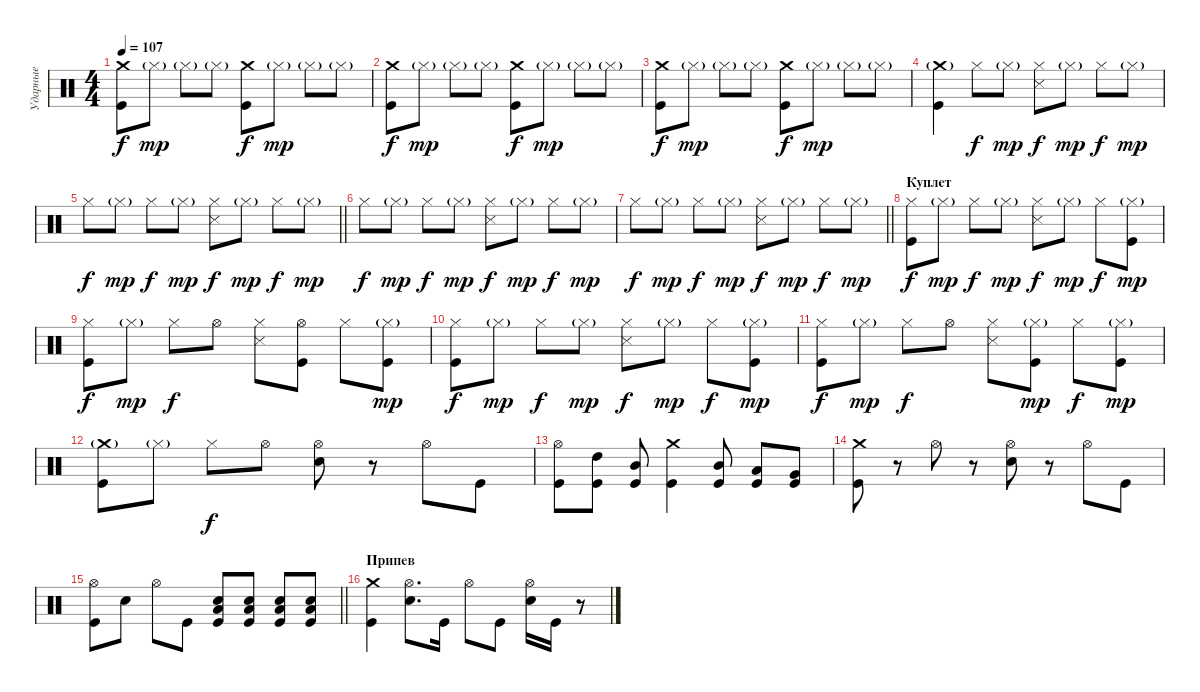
\track ("Ударные" "Ударные") {instrument percussion}
\staff {score}
\articulation defaults
\ts (4 4)
\tempo 107
\clef neutral
\ks c
("Kick (hit)" "Crash medium (hit)").8{dy f} "Hi-Hat (closed)"{g}.8{dy mp} "Hi-Hat (closed)"{g}.8 "Hi-Hat (closed)"{g}.8 ("Kick (hit)" "Crash medium (hit)").8{dy f} "Hi-Hat (closed)"{g}.8{dy mp} "Hi-Hat (closed)"{g}.8 "Hi-Hat (closed)"{g}.8 |
("Kick (hit)" "Crash medium (hit)").8{dy f} "Hi-Hat (closed)"{g}.8{dy mp} "Hi-Hat (closed)"{g}.8 "Hi-Hat (closed)"{g}.8 ("Kick (hit)" "Crash medium (hit)").8{dy f} "Hi-Hat (closed)"{g}.8{dy mp} "Hi-Hat (closed)"{g}.8 "Hi-Hat (closed)"{g}.8 |
("Kick (hit)" "Crash medium (hit)").8{dy f} "Hi-Hat (closed)"{g}.8{dy mp} "Hi-Hat (closed)"{g}.8 "Hi-Hat (closed)"{g}.8 ("Kick (hit)" "Crash medium (hit)").8{dy f} "Hi-Hat (closed)"{g}.8{dy mp} "Hi-Hat (closed)"{g}.8 "Hi-Hat (closed)"{g}.8 |
("Kick (hit)" "Crash medium (hit)"{g}).4 "Hi-Hat (closed)".8{dy f} "Hi-Hat (closed)"{g}.8{dy mp} ("Metronome (hit)" "Hi-Hat (closed)").8{dy f} "Hi-Hat (closed)"{g}.8{dy mp} "Hi-Hat (closed)".8{dy f} "Hi-Hat (closed)"{g}.8{dy mp} |
\barLineRight lightlight "Hi-Hat (closed)".8{dy f} "Hi-Hat (closed)"{g}.8{dy mp} "Hi-Hat (closed)".8{dy f} "Hi-Hat (closed)"{g}.8{dy mp}
("Metronome (hit)" "Hi-Hat (closed)").8{dy f} "Hi-Hat (closed)"{g}.8{dy mp} "Hi-Hat (closed)".8{dy f} "Hi-Hat (closed)"{g}.8{dy mp} |
"Hi-Hat (closed)".8{dy f} "Hi-Hat (closed)"{g}.8{dy mp} "Hi-Hat (closed)".8{dy f} "Hi-Hat (closed)"{g}.8{dy mp} ("Metronome (hit)" "Hi-Hat (closed)").8{dy f} "Hi-Hat (closed)"{g}.8{dy mp} "Hi-Hat (closed)".8{dy f} "Hi-Hat (closed)"{g}.8{dy mp} |
\barLineRight lightlight "Hi-Hat (closed)".8{dy f} "Hi-Hat (closed)"{g}.8{dy mp} "Hi-Hat (closed)".8{dy f} "Hi-Hat (closed)"{g}.8{dy mp}
("Metronome (hit)" "Hi-Hat (closed)").8{dy f} "Hi-Hat (closed)"{g}.8{dy mp} "Hi-Hat (closed)".8{dy f} "Hi-Hat (closed)"{g}.8{dy mp} |
\section ("" "Куплет")
("Kick (hit)" "Hi-Hat (closed)").8{dy f} "Hi-Hat (closed)"{g}.8{dy mp} "Hi-Hat (closed)".8{dy f} "Hi-Hat (closed)"{g}.8{dy mp} ("Metronome (hit)" "Hi-Hat (closed)").8{dy f} "Hi-Hat (closed)"{g}.8{dy mp} "Hi-Hat (closed)".8{dy f} ("Kick (hit)" "Hi-Hat (closed)"{g}).8{dy mp} |
("Kick (hit)" "Hi-Hat (closed)").8{dy f} "Hi-Hat (closed)"{g}.8{dy mp} "Hi-Hat (closed)".8{dy f} "Hi-Hat (open)".8 ("Metronome (hit)" "Hi-Hat (closed)").8 ("Kick (hit)" "Hi-Hat (open)").8 "Hi-Hat (closed)".8 ("Kick (hit)" "Hi-Hat (closed)"{g}).8{dy mp} |
("Kick (hit)" "Hi-Hat (closed)").8{dy f} "Hi-Hat (closed)"{g}.8{dy mp} "Hi-Hat (closed)".8{dy f} "Hi-Hat (closed)"{g}.8{dy mp} ("Metronome (hit)" "Hi-Hat (closed)").8{dy f} "Hi-Hat (closed)"{g}.8{dy mp} "Hi-Hat (closed)".8{dy f} ("Kick (hit)" "Hi-Hat (closed)"{g}).8{dy mp} |
("Kick (hit)" "Hi-Hat (closed)").8{dy f} "Hi-Hat (closed)"{g}.8{dy mp} "Hi-Hat (closed)".8{dy f} "Hi-Hat (open)".8 ("Metronome (hit)" "Hi-Hat (closed)").8 ("Kick (hit)" "Hi-Hat (closed)"{g}).8{dy mp} "Hi-Hat (closed)".8{dy f} ("Kick (hit)" "Hi-Hat (closed)"{g}).8{dy mp} |
("Kick (hit)" "Crash medium (hit)"{g}).8 "Hi-Hat (closed)"{g}.8 "Hi-Hat (closed)".8{dy f} "Hi-Hat (open)".8 ("Snare (hit) 2" "Hi-Hat (open)").8 r.8 "Hi-Hat (open)".8 "Kick (hit)".8 |
("Kick (hit)" "Hi-Hat (open)").8 ("Kick (hit)" "High Tom (hit)").8 ("Kick (hit)" "Mid Tom (hit)").8 ("Kick (hit)" "Crash medium (hit)").4 ("Kick (hit)" "Mid Tom (hit)").8 ("Kick (hit)" "Low Tom (hit)").8 ("Kick (hit)" "Very Low Tom (hit)").8 |
("Kick (hit)" "Crash medium (hit)").8 r.8 "Hi-Hat (open)".8 r.8 ("Snare (hit) 2" "Hi-Hat (open)").8 r.8 "Hi-Hat (open)".8 "Kick (hit)".8 |
\barLineRight lightlight
("Kick (hit)" "Hi-Hat (open)").8 "Snare (hit) 2".8 "Hi-Hat (open)".8 "Kick (hit)".8 ("Snare (hit) 2" "Low Tom (hit)" "Kick (hit)").8 ("Snare (hit) 2" "Low Tom (hit)" "Kick (hit)").8 ("Snare (hit) 2" "Low Tom (hit)" "Kick (hit)").8 ("Snare (hit) 2" "Low Tom (hit)" "Kick (hit)").8 |
\section ("" "Припев")
("Kick (hit)" "Crash medium (hit)").4 ("Snare (hit) 2" "Hi-Hat (open)").8{d} "Kick (hit)".16 "Hi-Hat (open)".8 "Kick (hit)".8 ("Snare (hit) 2" "Hi-Hat (open)").16 "Kick (hit)".16 r.8
